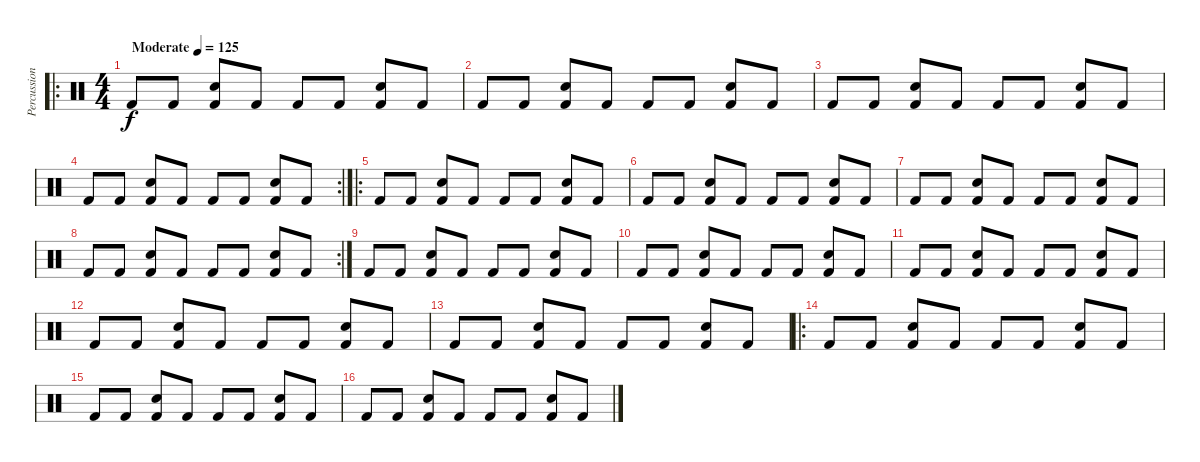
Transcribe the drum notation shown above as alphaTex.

\track ("Percussion" "Percussion") {instrument percussion}
\staff {score}
\articulation defaults
\ro
\ts (4 4)
\tempo (125 "Moderate")
\clef neutral
\ks c "Kick (hit) 2".8{dy f} "Kick (hit) 2".8
("Kick (hit) 2" "Electric Snare (hit)").8 "Kick (hit) 2".8 "Kick (hit) 2".8 "Kick (hit) 2".8 ("Kick (hit) 2" "Electric Snare (hit)").8 "Kick (hit) 2".8 |
"Kick (hit) 2".8 "Kick (hit) 2".8 ("Kick (hit) 2" "Electric Snare (hit)").8 "Kick (hit) 2".8 "Kick (hit) 2".8 "Kick (hit) 2".8 ("Kick (hit) 2" "Electric Snare (hit)").8 "Kick (hit) 2".8 |
"Kick (hit) 2".8 "Kick (hit) 2".8 ("Kick (hit) 2" "Electric Snare (hit)").8 "Kick (hit) 2".8 "Kick (hit) 2".8 "Kick (hit) 2".8 ("Kick (hit) 2" "Electric Snare (hit)").8 "Kick (hit) 2".8 |
\rc 2 "Kick (hit) 2".8 "Kick (hit) 2".8
("Kick (hit) 2" "Electric Snare (hit)").8 "Kick (hit) 2".8 "Kick (hit) 2".8 "Kick (hit) 2".8 ("Kick (hit) 2" "Electric Snare (hit)").8 "Kick (hit) 2".8 |
\ro "Kick (hit) 2".8 "Kick (hit) 2".8
("Kick (hit) 2" "Electric Snare (hit)").8 "Kick (hit) 2".8 "Kick (hit) 2".8 "Kick (hit) 2".8 ("Kick (hit) 2" "Electric Snare (hit)").8 "Kick (hit) 2".8 |
"Kick (hit) 2".8 "Kick (hit) 2".8 ("Kick (hit) 2" "Electric Snare (hit)").8 "Kick (hit) 2".8 "Kick (hit) 2".8 "Kick (hit) 2".8 ("Kick (hit) 2" "Electric Snare (hit)").8 "Kick (hit) 2".8 |
"Kick (hit) 2".8 "Kick (hit) 2".8 ("Kick (hit) 2" "Electric Snare (hit)").8 "Kick (hit) 2".8 "Kick (hit) 2".8 "Kick (hit) 2".8 ("Kick (hit) 2" "Electric Snare (hit)").8 "Kick (hit) 2".8 |
\rc 2 "Kick (hit) 2".8 "Kick (hit) 2".8
("Kick (hit) 2" "Electric Snare (hit)").8 "Kick (hit) 2".8 "Kick (hit) 2".8 "Kick (hit) 2".8 ("Kick (hit) 2" "Electric Snare (hit)").8 "Kick (hit) 2".8 |
"Kick (hit) 2".8 "Kick (hit) 2".8 ("Kick (hit) 2" "Electric Snare (hit)").8 "Kick (hit) 2".8 "Kick (hit) 2".8 "Kick (hit) 2".8 ("Kick (hit) 2" "Electric Snare (hit)").8 "Kick (hit) 2".8 |
"Kick (hit) 2".8 "Kick (hit) 2".8 ("Kick (hit) 2" "Electric Snare (hit)").8 "Kick (hit) 2".8 "Kick (hit) 2".8 "Kick (hit) 2".8 ("Kick (hit) 2" "Electric Snare (hit)").8 "Kick (hit) 2".8 |
"Kick (hit) 2".8 "Kick (hit) 2".8 ("Kick (hit) 2" "Electric Snare (hit)").8 "Kick (hit) 2".8 "Kick (hit) 2".8 "Kick (hit) 2".8 ("Kick (hit) 2" "Electric Snare (hit)").8 "Kick (hit) 2".8 |
"Kick (hit) 2".8 "Kick (hit) 2".8 ("Kick (hit) 2" "Electric Snare (hit)").8 "Kick (hit) 2".8 "Kick (hit) 2".8 "Kick (hit) 2".8 ("Kick (hit) 2" "Electric Snare (hit)").8 "Kick (hit) 2".8 |
"Kick (hit) 2".8 "Kick (hit) 2".8 ("Kick (hit) 2" "Electric Snare (hit)").8 "Kick (hit) 2".8 "Kick (hit) 2".8 "Kick (hit) 2".8 ("Kick (hit) 2" "Electric Snare (hit)").8 "Kick (hit) 2".8 |
\ro "Kick (hit) 2".8 "Kick (hit) 2".8
("Kick (hit) 2" "Electric Snare (hit)").8 "Kick (hit) 2".8 "Kick (hit) 2".8 "Kick (hit) 2".8 ("Kick (hit) 2" "Electric Snare (hit)").8 "Kick (hit) 2".8 |
"Kick (hit) 2".8 "Kick (hit) 2".8 ("Kick (hit) 2" "Electric Snare (hit)").8 "Kick (hit) 2".8 "Kick (hit) 2".8 "Kick (hit) 2".8 ("Kick (hit) 2" "Electric Snare (hit)").8 "Kick (hit) 2".8 |
"Kick (hit) 2".8 "Kick (hit) 2".8 ("Kick (hit) 2" "Electric Snare (hit)").8 "Kick (hit) 2".8 "Kick (hit) 2".8 "Kick (hit) 2".8 ("Kick (hit) 2" "Electric Snare (hit)").8 "Kick (hit) 2".8
